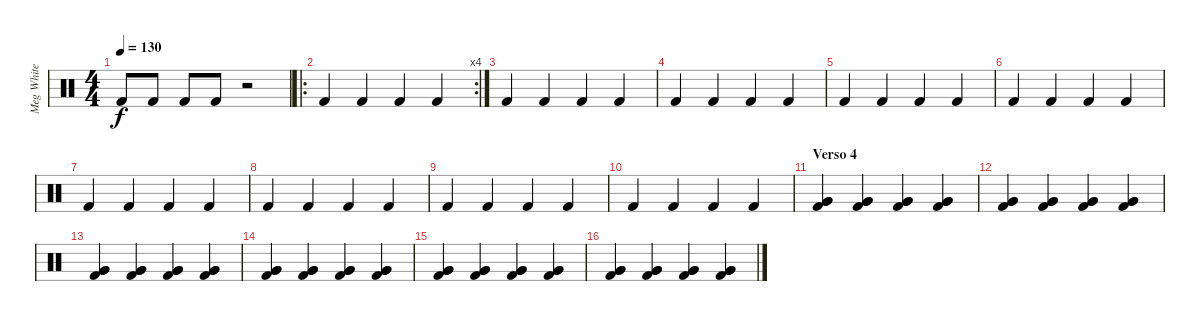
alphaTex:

\track ("Meg White" "Meg White") {instrument percussion}
\staff {score}
\articulation defaults
\ts (4 4)
\tempo 130
\clef neutral
\ks c "Kick (hit) 2".8{dy f} "Kick (hit) 2".8 "Kick (hit) 2".8 "Kick (hit) 2".8
r.2 |
\ro
\rc 4 "Kick (hit) 2".4 "Kick (hit) 2".4 "Kick (hit) 2".4 "Kick (hit) 2".4
|
"Kick (hit) 2".4 "Kick (hit) 2".4 "Kick (hit) 2".4 "Kick (hit) 2".4 |
"Kick (hit) 2".4 "Kick (hit) 2".4 "Kick (hit) 2".4 "Kick (hit) 2".4 |
"Kick (hit) 2".4 "Kick (hit) 2".4 "Kick (hit) 2".4 "Kick (hit) 2".4 |
"Kick (hit) 2".4 "Kick (hit) 2".4 "Kick (hit) 2".4 "Kick (hit) 2".4 |
"Kick (hit) 2".4 "Kick (hit) 2".4 "Kick (hit) 2".4 "Kick (hit) 2".4 |
"Kick (hit) 2".4 "Kick (hit) 2".4 "Kick (hit) 2".4 "Kick (hit) 2".4 |
"Kick (hit) 2".4 "Kick (hit) 2".4 "Kick (hit) 2".4 "Kick (hit) 2".4 |
"Kick (hit) 2".4 "Kick (hit) 2".4 "Kick (hit) 2".4 "Kick (hit) 2".4 |
\section ("" "Verso 4")
("Very Low Tom (hit)" "Kick (hit) 2" "Very Low Tom (hit)").4 ("Very Low Tom (hit)" "Kick (hit) 2" "Very Low Tom (hit)").4 ("Very Low Tom (hit)" "Kick (hit) 2" "Very Low Tom (hit)").4 ("Very Low Tom (hit)" "Kick (hit) 2" "Very Low Tom (hit)").4 |
("Very Low Tom (hit)" "Kick (hit) 2" "Very Low Tom (hit)").4 ("Very Low Tom (hit)" "Kick (hit) 2" "Very Low Tom (hit)").4 ("Very Low Tom (hit)" "Kick (hit) 2" "Very Low Tom (hit)").4 ("Very Low Tom (hit)" "Kick (hit) 2" "Very Low Tom (hit)").4 |
("Very Low Tom (hit)" "Kick (hit) 2" "Very Low Tom (hit)").4 ("Very Low Tom (hit)" "Kick (hit) 2" "Very Low Tom (hit)").4 ("Very Low Tom (hit)" "Kick (hit) 2" "Very Low Tom (hit)").4 ("Very Low Tom (hit)" "Kick (hit) 2" "Very Low Tom (hit)").4 |
("Very Low Tom (hit)" "Kick (hit) 2" "Very Low Tom (hit)").4 ("Very Low Tom (hit)" "Kick (hit) 2" "Very Low Tom (hit)").4 ("Very Low Tom (hit)" "Kick (hit) 2" "Very Low Tom (hit)").4 ("Very Low Tom (hit)" "Kick (hit) 2" "Very Low Tom (hit)").4 |
("Very Low Tom (hit)" "Kick (hit) 2" "Very Low Tom (hit)").4 ("Very Low Tom (hit)" "Kick (hit) 2" "Very Low Tom (hit)").4 ("Very Low Tom (hit)" "Kick (hit) 2" "Very Low Tom (hit)").4 ("Very Low Tom (hit)" "Kick (hit) 2" "Very Low Tom (hit)").4 |
("Very Low Tom (hit)" "Kick (hit) 2" "Very Low Tom (hit)").4 ("Very Low Tom (hit)" "Kick (hit) 2" "Very Low Tom (hit)").4 ("Very Low Tom (hit)" "Kick (hit) 2" "Very Low Tom (hit)").4 ("Very Low Tom (hit)" "Kick (hit) 2" "Very Low Tom (hit)").4
